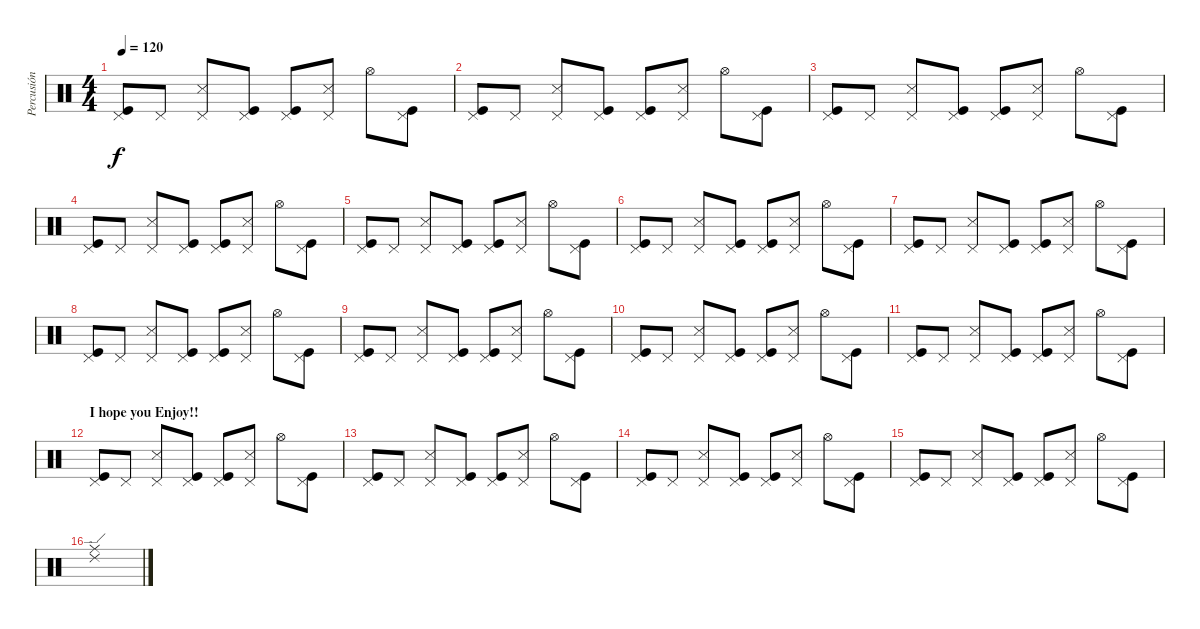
\track ("Percusión" "Percusión") {instrument percussion}
\staff {score}
\articulation defaults
\ts (4 4)
\tempo 120
\clef neutral
\ks c
("Pedal Hi-Hat (hit)" "Kick (hit)").8{dy f} "Pedal Hi-Hat (hit)".8 ("Pedal Hi-Hat (hit)" "Snare (side stick) 3").8 ("Pedal Hi-Hat (hit)" "Kick (hit)").8 ("Pedal Hi-Hat (hit)" "Kick (hit)").8 ("Pedal Hi-Hat (hit)" "Snare (side stick) 3").8 "Hi-Hat (open)".8 ("Pedal Hi-Hat (hit)" "Kick (hit)").8 |
("Pedal Hi-Hat (hit)" "Kick (hit)").8 "Pedal Hi-Hat (hit)".8 ("Pedal Hi-Hat (hit)" "Snare (side stick) 3").8 ("Pedal Hi-Hat (hit)" "Kick (hit)").8 ("Pedal Hi-Hat (hit)" "Kick (hit)").8 ("Pedal Hi-Hat (hit)" "Snare (side stick) 3").8 "Hi-Hat (open)".8 ("Pedal Hi-Hat (hit)" "Kick (hit)").8 |
("Pedal Hi-Hat (hit)" "Kick (hit)").8 "Pedal Hi-Hat (hit)".8 ("Pedal Hi-Hat (hit)" "Snare (side stick) 3").8 ("Pedal Hi-Hat (hit)" "Kick (hit)").8 ("Pedal Hi-Hat (hit)" "Kick (hit)").8 ("Pedal Hi-Hat (hit)" "Snare (side stick) 3").8 "Hi-Hat (open)".8 ("Pedal Hi-Hat (hit)" "Kick (hit)").8 |
("Pedal Hi-Hat (hit)" "Kick (hit)").8 "Pedal Hi-Hat (hit)".8 ("Pedal Hi-Hat (hit)" "Snare (side stick) 3").8 ("Pedal Hi-Hat (hit)" "Kick (hit)").8 ("Pedal Hi-Hat (hit)" "Kick (hit)").8 ("Pedal Hi-Hat (hit)" "Snare (side stick) 3").8 "Hi-Hat (open)".8 ("Pedal Hi-Hat (hit)" "Kick (hit)").8 |
("Pedal Hi-Hat (hit)" "Kick (hit)").8 "Pedal Hi-Hat (hit)".8 ("Pedal Hi-Hat (hit)" "Snare (side stick) 3").8 ("Pedal Hi-Hat (hit)" "Kick (hit)").8 ("Pedal Hi-Hat (hit)" "Kick (hit)").8 ("Pedal Hi-Hat (hit)" "Snare (side stick) 3").8 "Hi-Hat (open)".8 ("Pedal Hi-Hat (hit)" "Kick (hit)").8 |
("Pedal Hi-Hat (hit)" "Kick (hit)").8 "Pedal Hi-Hat (hit)".8 ("Pedal Hi-Hat (hit)" "Snare (side stick) 3").8 ("Pedal Hi-Hat (hit)" "Kick (hit)").8 ("Pedal Hi-Hat (hit)" "Kick (hit)").8 ("Pedal Hi-Hat (hit)" "Snare (side stick) 3").8 "Hi-Hat (open)".8 ("Pedal Hi-Hat (hit)" "Kick (hit)").8 |
("Pedal Hi-Hat (hit)" "Kick (hit)").8 "Pedal Hi-Hat (hit)".8 ("Pedal Hi-Hat (hit)" "Snare (side stick) 3").8 ("Pedal Hi-Hat (hit)" "Kick (hit)").8 ("Pedal Hi-Hat (hit)" "Kick (hit)").8 ("Pedal Hi-Hat (hit)" "Snare (side stick) 3").8 "Hi-Hat (open)".8 ("Pedal Hi-Hat (hit)" "Kick (hit)").8 |
("Pedal Hi-Hat (hit)" "Kick (hit)").8 "Pedal Hi-Hat (hit)".8 ("Pedal Hi-Hat (hit)" "Snare (side stick) 3").8 ("Pedal Hi-Hat (hit)" "Kick (hit)").8 ("Pedal Hi-Hat (hit)" "Kick (hit)").8 ("Pedal Hi-Hat (hit)" "Snare (side stick) 3").8 "Hi-Hat (open)".8 ("Pedal Hi-Hat (hit)" "Kick (hit)").8 |
("Pedal Hi-Hat (hit)" "Kick (hit)").8 "Pedal Hi-Hat (hit)".8 ("Pedal Hi-Hat (hit)" "Snare (side stick) 3").8 ("Pedal Hi-Hat (hit)" "Kick (hit)").8 ("Pedal Hi-Hat (hit)" "Kick (hit)").8 ("Pedal Hi-Hat (hit)" "Snare (side stick) 3").8 "Hi-Hat (open)".8 ("Pedal Hi-Hat (hit)" "Kick (hit)").8 |
("Pedal Hi-Hat (hit)" "Kick (hit)").8 "Pedal Hi-Hat (hit)".8 ("Pedal Hi-Hat (hit)" "Snare (side stick) 3").8 ("Pedal Hi-Hat (hit)" "Kick (hit)").8 ("Pedal Hi-Hat (hit)" "Kick (hit)").8 ("Pedal Hi-Hat (hit)" "Snare (side stick) 3").8 "Hi-Hat (open)".8 ("Pedal Hi-Hat (hit)" "Kick (hit)").8 |
("Pedal Hi-Hat (hit)" "Kick (hit)").8 "Pedal Hi-Hat (hit)".8 ("Pedal Hi-Hat (hit)" "Snare (side stick) 3").8 ("Pedal Hi-Hat (hit)" "Kick (hit)").8 ("Pedal Hi-Hat (hit)" "Kick (hit)").8 ("Pedal Hi-Hat (hit)" "Snare (side stick) 3").8 "Hi-Hat (open)".8 ("Pedal Hi-Hat (hit)" "Kick (hit)").8 |
\section ("" "I hope you Enjoy!!")
("Pedal Hi-Hat (hit)" "Kick (hit)").8 "Pedal Hi-Hat (hit)".8 ("Pedal Hi-Hat (hit)" "Snare (side stick) 3").8 ("Pedal Hi-Hat (hit)" "Kick (hit)").8 ("Pedal Hi-Hat (hit)" "Kick (hit)").8 ("Pedal Hi-Hat (hit)" "Snare (side stick) 3").8 "Hi-Hat (open)".8 ("Pedal Hi-Hat (hit)" "Kick (hit)").8 |
("Pedal Hi-Hat (hit)" "Kick (hit)").8 "Pedal Hi-Hat (hit)".8 ("Pedal Hi-Hat (hit)" "Snare (side stick) 3").8 ("Pedal Hi-Hat (hit)" "Kick (hit)").8 ("Pedal Hi-Hat (hit)" "Kick (hit)").8 ("Pedal Hi-Hat (hit)" "Snare (side stick) 3").8 "Hi-Hat (open)".8 ("Pedal Hi-Hat (hit)" "Kick (hit)").8 |
("Pedal Hi-Hat (hit)" "Kick (hit)").8 "Pedal Hi-Hat (hit)".8 ("Pedal Hi-Hat (hit)" "Snare (side stick) 3").8 ("Pedal Hi-Hat (hit)" "Kick (hit)").8 ("Pedal Hi-Hat (hit)" "Kick (hit)").8 ("Pedal Hi-Hat (hit)" "Snare (side stick) 3").8 "Hi-Hat (open)".8 ("Pedal Hi-Hat (hit)" "Kick (hit)").8 |
("Pedal Hi-Hat (hit)" "Kick (hit)").8 "Pedal Hi-Hat (hit)".8 ("Pedal Hi-Hat (hit)" "Snare (side stick) 3").8 ("Pedal Hi-Hat (hit)" "Kick (hit)").8 ("Pedal Hi-Hat (hit)" "Kick (hit)").8 ("Pedal Hi-Hat (hit)" "Snare (side stick) 3").8 "Hi-Hat (open)".8 ("Pedal Hi-Hat (hit)" "Kick (hit)").8 |
("Ride (edge) 2" "Ride (middle)").1
